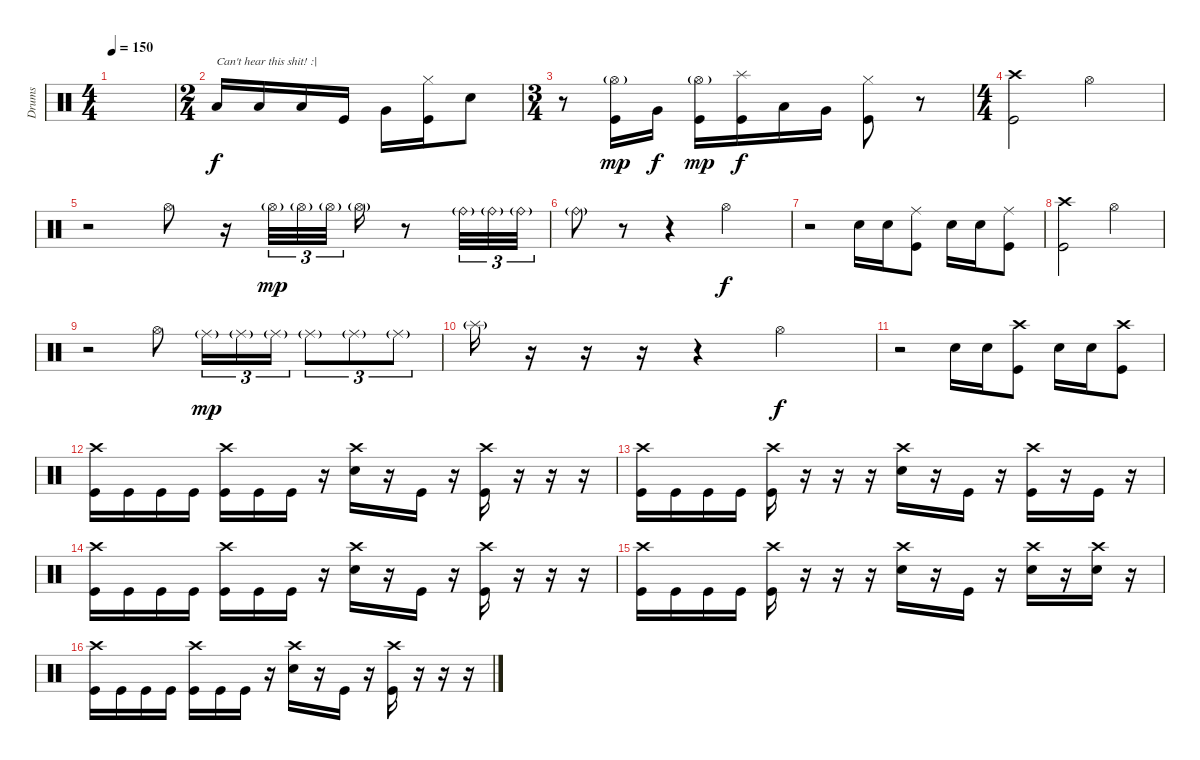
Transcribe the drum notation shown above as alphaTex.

\track ("Drums" "Drums") {instrument percussion}
\staff {score}
\articulation defaults
\ts (4 4)
\tempo 150
\clef neutral
\ks c
|
\ts (2 4)
"Low Floor Tom (hit)".16{txt "Can't hear this shit! :|"} "Low Tom (hit)".16 "Low Floor Tom (hit)".16 "Kick (hit)".16 "Very Low Tom (hit)".16 ("Hi-Hat (closed)" "Kick (hit)").16 "Electric Snare (hit)".8 |
\ts (3 4)
r.8 ("Hi-Hat (open)"{g} "Kick (hit)").16{dy mp} "Very Low Tom (hit)".16{dy f} ("Hi-Hat (open)"{g} "Kick (hit)").16{dy mp} ("Splash (hit)" "Kick (hit)").16{dy f} "Low Tom (hit)".16 "Very Low Tom (hit)".16 ("Hi-Hat (closed)" "Kick (hit)").8 r.8 |
\ts (4 4)
("Crash high (hit)" "Kick (hit)").2 "Hi-Hat (open)".2 |
r.2 "Hi-Hat (open)".8 r.16 "Hi-Hat (open)"{g}.32{tu (3 2) dy mp} "Hi-Hat (open)"{g}.32{tu (3 2)} "Hi-Hat (open)"{g}.32{tu (3 2)} "Hi-Hat (open)"{g}.16 r.8 "Ride (bell)"{g}.32{tu (3 2)} "Ride (bell)"{g}.32{tu (3 2)} "Ride (bell)"{g}.32{tu (3 2)} |
"Ride (bell)"{g}.8 r.8 r.4 "Hi-Hat (open)".2{dy f} |
r.2 "Electric Snare (hit)".16 "Electric Snare (hit)".16 ("Ride (middle)" "Kick (hit)").8 "Electric Snare (hit)".16 "Electric Snare (hit)".16 ("Ride (middle)" "Kick (hit)").8 |
("Crash high (hit)" "Kick (hit)").2 "Hi-Hat (open)".2 |
r.2 "Hi-Hat (open)".8 "Ride (middle)"{g}.16{tu (3 2) dy mp} "Ride (middle)"{g}.16{tu (3 2)} "Ride (middle)"{g}.16{tu (3 2)} "Ride (middle)"{g}.8{tu (3 2)} "Ride (middle)"{g}.8{tu (3 2)} "Ride (middle)"{g}.8{tu (3 2)} |
"Splash (hit)"{g}.16 r.16 r.16 r.16 r.4 "Hi-Hat (open)".2{dy f} |
r.2 "Electric Snare (hit)".16 "Electric Snare (hit)".16 ("Crash high (hit)" "Kick (hit)").8 "Electric Snare (hit)".16 "Electric Snare (hit)".16 ("Crash high (hit)" "Kick (hit)").8 |
("Crash high (hit)" "Kick (hit)").16 "Kick (hit)".16 "Kick (hit)".16 "Kick (hit)".16 ("Crash high (hit)" "Kick (hit)").16 "Kick (hit)".16 "Kick (hit)".16 r.16 ("Crash high (hit)" "Electric Snare (hit)").16 r.16 "Kick (hit)".16 r.16 ("Crash high (hit)" "Kick (hit)").16 r.16 r.16 r.16 |
("Crash high (hit)" "Kick (hit)").16 "Kick (hit)".16 "Kick (hit)".16 "Kick (hit)".16 ("Crash high (hit)" "Kick (hit)").16 r.16 r.16 r.16 ("Crash high (hit)" "Electric Snare (hit)").16 r.16 "Kick (hit)".16 r.16 ("Crash high (hit)" "Kick (hit)").16 r.16 "Kick (hit)".16 r.16 |
("Crash high (hit)" "Kick (hit)").16 "Kick (hit)".16 "Kick (hit)".16 "Kick (hit)".16 ("Crash high (hit)" "Kick (hit)").16 "Kick (hit)".16 "Kick (hit)".16 r.16 ("Crash high (hit)" "Electric Snare (hit)").16 r.16 "Kick (hit)".16 r.16 ("Crash high (hit)" "Kick (hit)").16 r.16 r.16 r.16 |
("Crash high (hit)" "Kick (hit)").16 "Kick (hit)".16 "Kick (hit)".16 "Kick (hit)".16 ("Crash high (hit)" "Kick (hit)").16 r.16 r.16 r.16 ("Crash high (hit)" "Electric Snare (hit)").16 r.16 "Kick (hit)".16 r.16 ("Crash high (hit)" "Electric Snare (hit)").16 r.16 ("Crash high (hit)" "Electric Snare (hit)").16 r.16 |
("Crash high (hit)" "Kick (hit)").16 "Kick (hit)".16 "Kick (hit)".16 "Kick (hit)".16 ("Crash high (hit)" "Kick (hit)").16 "Kick (hit)".16 "Kick (hit)".16 r.16 ("Crash high (hit)" "Electric Snare (hit)").16 r.16 "Kick (hit)".16 r.16 ("Crash high (hit)" "Kick (hit)").16 r.16 r.16 r.16
